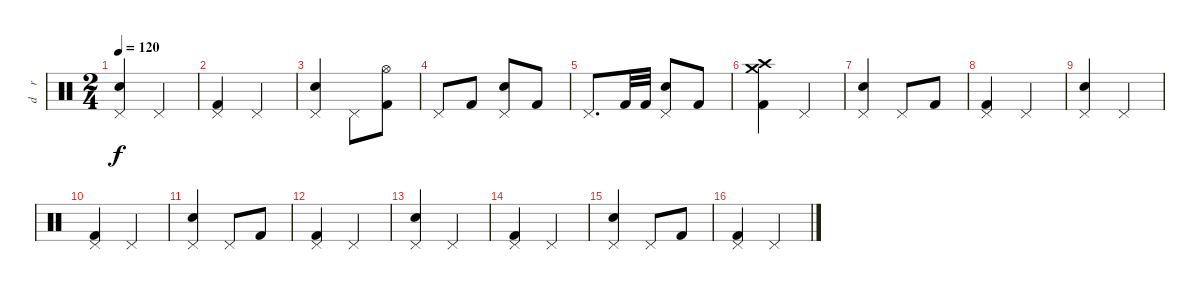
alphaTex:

\track ("d    r     u    m    s" "d    r    ") {instrument percussion}
\staff {score}
\articulation defaults
\ts (2 4)
\tempo 120
\clef neutral
\ks c
("Pedal Hi-Hat (hit)" "Snare (hit) 2").4{dy f} "Pedal Hi-Hat (hit)".4 |
("Pedal Hi-Hat (hit)" "Kick (hit) 2").4 "Pedal Hi-Hat (hit)".4 |
("Pedal Hi-Hat (hit)" "Snare (hit) 2").4 "Pedal Hi-Hat (hit)".8 ("Hi-Hat (open)" "Kick (hit) 2").8 |
"Pedal Hi-Hat (hit)".8 "Kick (hit) 2".8 ("Pedal Hi-Hat (hit)" "Snare (hit) 2").8 "Kick (hit) 2".8 |
"Pedal Hi-Hat (hit)".8{d} "Kick (hit) 2".32 "Kick (hit) 2".32 ("Pedal Hi-Hat (hit)" "Snare (hit) 2").8 "Kick (hit) 2".8 |
("Crash high (hit)" "Crash medium (hit)" "Kick (hit) 2").4 "Pedal Hi-Hat (hit)".4 |
("Pedal Hi-Hat (hit)" "Snare (hit) 2").4 "Pedal Hi-Hat (hit)".8 "Kick (hit) 2".8 |
("Pedal Hi-Hat (hit)" "Kick (hit) 2").4 "Pedal Hi-Hat (hit)".4 |
("Pedal Hi-Hat (hit)" "Snare (hit) 2").4 "Pedal Hi-Hat (hit)".4 |
("Pedal Hi-Hat (hit)" "Kick (hit) 2").4 "Pedal Hi-Hat (hit)".4 |
("Pedal Hi-Hat (hit)" "Snare (hit) 2").4 "Pedal Hi-Hat (hit)".8 "Kick (hit) 2".8 |
("Pedal Hi-Hat (hit)" "Kick (hit) 2").4 "Pedal Hi-Hat (hit)".4 |
("Pedal Hi-Hat (hit)" "Snare (hit) 2").4 "Pedal Hi-Hat (hit)".4 |
("Pedal Hi-Hat (hit)" "Kick (hit) 2").4 "Pedal Hi-Hat (hit)".4 |
("Pedal Hi-Hat (hit)" "Snare (hit) 2").4 "Pedal Hi-Hat (hit)".8 "Kick (hit) 2".8 |
("Pedal Hi-Hat (hit)" "Kick (hit) 2").4 "Pedal Hi-Hat (hit)".4
